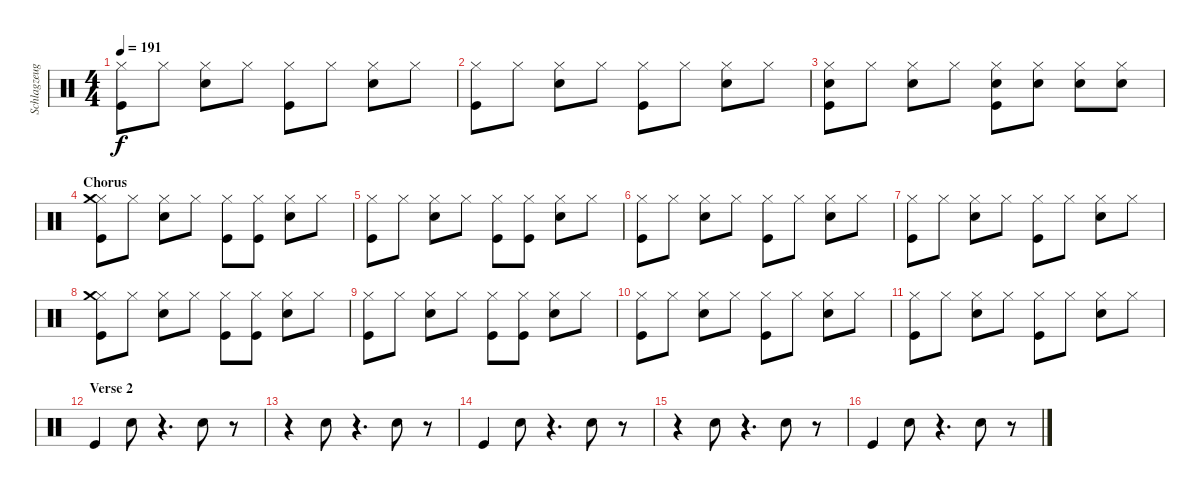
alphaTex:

\track ("Schlagzeug - Bela B." "Schlagzeug") {instrument percussion}
\staff {score}
\articulation defaults
\ts (4 4)
\tempo 191
\clef neutral
\ks c
("Kick (hit)" "Hi-Hat (closed)").8{dy f} "Hi-Hat (closed)".8 ("Hi-Hat (closed)" "Electric Snare (hit)").8 "Hi-Hat (closed)".8 ("Hi-Hat (closed)" "Kick (hit)").8 "Hi-Hat (closed)".8 ("Hi-Hat (closed)" "Electric Snare (hit)").8 "Hi-Hat (closed)".8 |
("Kick (hit)" "Hi-Hat (closed)").8 "Hi-Hat (closed)".8 ("Hi-Hat (closed)" "Electric Snare (hit)").8 "Hi-Hat (closed)".8 ("Hi-Hat (closed)" "Kick (hit)").8 "Hi-Hat (closed)".8 ("Hi-Hat (closed)" "Electric Snare (hit)").8 "Hi-Hat (closed)".8 |
("Kick (hit)" "Hi-Hat (closed)" "Electric Snare (hit)").8 "Hi-Hat (closed)".8 ("Hi-Hat (closed)" "Electric Snare (hit)").8 "Hi-Hat (closed)".8 ("Hi-Hat (closed)" "Kick (hit)" "Electric Snare (hit)").8 ("Hi-Hat (closed)" "Electric Snare (hit)").8 ("Hi-Hat (closed)" "Electric Snare (hit)").8 ("Hi-Hat (closed)" "Electric Snare (hit)").8 |
\section ("" "Chorus")
("Kick (hit)" "Hi-Hat (closed)" "Crash medium (hit)").8 "Hi-Hat (closed)".8 ("Hi-Hat (closed)" "Electric Snare (hit)").8 "Hi-Hat (closed)".8 ("Hi-Hat (closed)" "Kick (hit)").8 ("Hi-Hat (closed)" "Kick (hit)").8 ("Hi-Hat (closed)" "Electric Snare (hit)").8 "Hi-Hat (closed)".8 |
("Kick (hit)" "Hi-Hat (closed)").8 "Hi-Hat (closed)".8 ("Hi-Hat (closed)" "Electric Snare (hit)").8 "Hi-Hat (closed)".8 ("Hi-Hat (closed)" "Kick (hit)").8 ("Hi-Hat (closed)" "Kick (hit)").8 ("Hi-Hat (closed)" "Electric Snare (hit)").8 "Hi-Hat (closed)".8 |
("Kick (hit)" "Hi-Hat (closed)").8 "Hi-Hat (closed)".8 ("Hi-Hat (closed)" "Electric Snare (hit)").8 "Hi-Hat (closed)".8 ("Hi-Hat (closed)" "Kick (hit)").8 "Hi-Hat (closed)".8 ("Hi-Hat (closed)" "Electric Snare (hit)").8 "Hi-Hat (closed)".8 |
("Kick (hit)" "Hi-Hat (closed)").8 "Hi-Hat (closed)".8 ("Hi-Hat (closed)" "Electric Snare (hit)").8 "Hi-Hat (closed)".8 ("Hi-Hat (closed)" "Kick (hit)").8 "Hi-Hat (closed)".8 ("Hi-Hat (closed)" "Electric Snare (hit)").8 "Hi-Hat (closed)".8 |
("Kick (hit)" "Hi-Hat (closed)" "Crash medium (hit)").8 "Hi-Hat (closed)".8 ("Hi-Hat (closed)" "Electric Snare (hit)").8 "Hi-Hat (closed)".8 ("Hi-Hat (closed)" "Kick (hit)").8 ("Hi-Hat (closed)" "Kick (hit)").8 ("Hi-Hat (closed)" "Electric Snare (hit)").8 "Hi-Hat (closed)".8 |
("Kick (hit)" "Hi-Hat (closed)").8 "Hi-Hat (closed)".8 ("Hi-Hat (closed)" "Electric Snare (hit)").8 "Hi-Hat (closed)".8 ("Hi-Hat (closed)" "Kick (hit)").8 ("Hi-Hat (closed)" "Kick (hit)").8 ("Hi-Hat (closed)" "Electric Snare (hit)").8 "Hi-Hat (closed)".8 |
("Kick (hit)" "Hi-Hat (closed)").8 "Hi-Hat (closed)".8 ("Hi-Hat (closed)" "Electric Snare (hit)").8 "Hi-Hat (closed)".8 ("Hi-Hat (closed)" "Kick (hit)").8 "Hi-Hat (closed)".8 ("Hi-Hat (closed)" "Electric Snare (hit)").8 "Hi-Hat (closed)".8 |
("Kick (hit)" "Hi-Hat (closed)").8 "Hi-Hat (closed)".8 ("Hi-Hat (closed)" "Electric Snare (hit)").8 "Hi-Hat (closed)".8 ("Hi-Hat (closed)" "Kick (hit)").8 "Hi-Hat (closed)".8 ("Hi-Hat (closed)" "Electric Snare (hit)").8 "Hi-Hat (closed)".8 |
\section ("" "Verse 2")
"Kick (hit)".4 "Electric Snare (hit)".8 r.4{d} "Electric Snare (hit)".8 r.8 |
r.4 "Electric Snare (hit)".8 r.4{d} "Electric Snare (hit)".8 r.8 |
"Kick (hit)".4 "Electric Snare (hit)".8 r.4{d} "Electric Snare (hit)".8 r.8 |
r.4 "Electric Snare (hit)".8 r.4{d} "Electric Snare (hit)".8 r.8 |
"Kick (hit)".4 "Electric Snare (hit)".8 r.4{d} "Electric Snare (hit)".8 r.8
